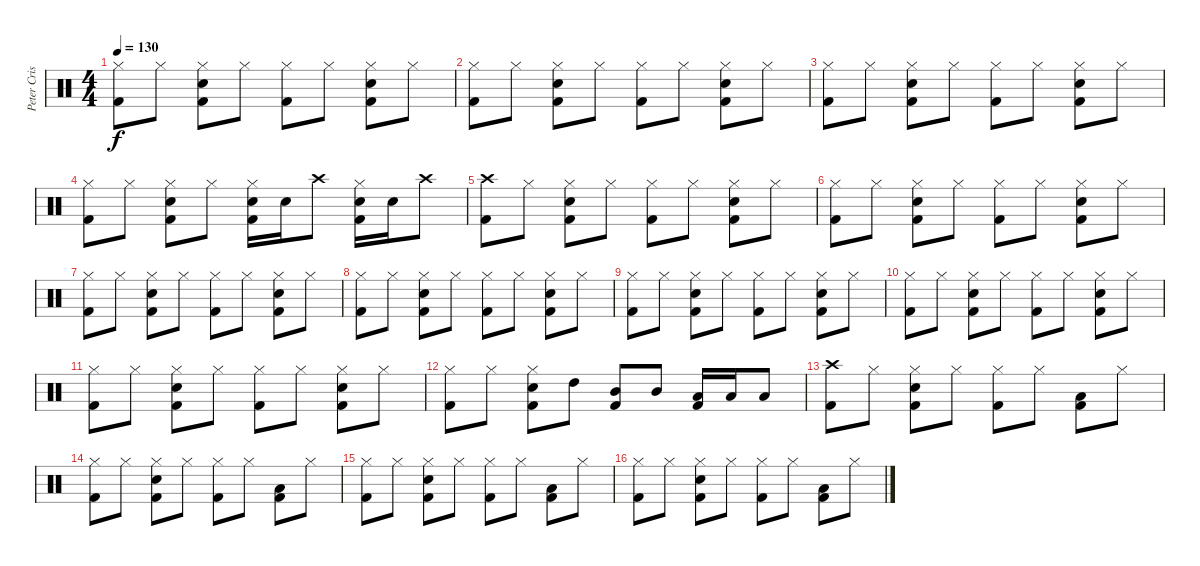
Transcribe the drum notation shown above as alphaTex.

\track ("Peter Criss" "Peter Cris") {instrument percussion}
\staff {score}
\articulation defaults
\ts (4 4)
\tempo 130
\clef neutral
\ks c
("Hi-Hat (closed)" "Kick (hit) 2").8{dy f} "Hi-Hat (closed)".8 ("Hi-Hat (closed)" "Electric Snare (hit)" "Kick (hit) 2").8 "Hi-Hat (closed)".8 ("Hi-Hat (closed)" "Kick (hit) 2").8 "Hi-Hat (closed)".8 ("Hi-Hat (closed)" "Electric Snare (hit)" "Kick (hit) 2").8 "Hi-Hat (closed)".8 |
("Hi-Hat (closed)" "Kick (hit) 2").8 "Hi-Hat (closed)".8 ("Hi-Hat (closed)" "Electric Snare (hit)" "Kick (hit) 2").8 "Hi-Hat (closed)".8 ("Hi-Hat (closed)" "Kick (hit) 2").8 "Hi-Hat (closed)".8 ("Hi-Hat (closed)" "Electric Snare (hit)" "Kick (hit) 2").8 "Hi-Hat (closed)".8 |
("Hi-Hat (closed)" "Kick (hit) 2").8 "Hi-Hat (closed)".8 ("Hi-Hat (closed)" "Electric Snare (hit)" "Kick (hit) 2").8 "Hi-Hat (closed)".8 ("Hi-Hat (closed)" "Kick (hit) 2").8 "Hi-Hat (closed)".8 ("Hi-Hat (closed)" "Electric Snare (hit)" "Kick (hit) 2").8 "Hi-Hat (closed)".8 |
("Hi-Hat (closed)" "Kick (hit) 2").8 "Hi-Hat (closed)".8 ("Hi-Hat (closed)" "Electric Snare (hit)" "Kick (hit) 2").8 "Hi-Hat (closed)".8 ("Hi-Hat (closed)" "Electric Snare (hit)" "Kick (hit) 2").16 "Electric Snare (hit)".16 "Crash high (hit)".8 ("Hi-Hat (closed)" "Electric Snare (hit)" "Kick (hit) 2").16 "Electric Snare (hit)".16 "Crash high (hit)".8 |
("Crash high (hit)" "Kick (hit) 2").8 "Hi-Hat (closed)".8 ("Hi-Hat (closed)" "Electric Snare (hit)" "Kick (hit) 2").8 "Hi-Hat (closed)".8 ("Hi-Hat (closed)" "Kick (hit) 2").8 "Hi-Hat (closed)".8 ("Hi-Hat (closed)" "Electric Snare (hit)" "Kick (hit) 2").8 "Hi-Hat (closed)".8 |
("Hi-Hat (closed)" "Kick (hit) 2").8 "Hi-Hat (closed)".8 ("Hi-Hat (closed)" "Electric Snare (hit)" "Kick (hit) 2").8 "Hi-Hat (closed)".8 ("Hi-Hat (closed)" "Kick (hit) 2").8 "Hi-Hat (closed)".8 ("Hi-Hat (closed)" "Electric Snare (hit)" "Kick (hit) 2").8 "Hi-Hat (closed)".8 |
("Hi-Hat (closed)" "Kick (hit) 2").8 "Hi-Hat (closed)".8 ("Hi-Hat (closed)" "Electric Snare (hit)" "Kick (hit) 2").8 "Hi-Hat (closed)".8 ("Hi-Hat (closed)" "Kick (hit) 2").8 "Hi-Hat (closed)".8 ("Hi-Hat (closed)" "Electric Snare (hit)" "Kick (hit) 2").8 "Hi-Hat (closed)".8 |
("Hi-Hat (closed)" "Kick (hit) 2").8 "Hi-Hat (closed)".8 ("Hi-Hat (closed)" "Electric Snare (hit)" "Kick (hit) 2").8 "Hi-Hat (closed)".8 ("Hi-Hat (closed)" "Kick (hit) 2").8 "Hi-Hat (closed)".8 ("Hi-Hat (closed)" "Electric Snare (hit)" "Kick (hit) 2").8 "Hi-Hat (closed)".8 |
("Hi-Hat (closed)" "Kick (hit) 2").8 "Hi-Hat (closed)".8 ("Hi-Hat (closed)" "Electric Snare (hit)" "Kick (hit) 2").8 "Hi-Hat (closed)".8 ("Hi-Hat (closed)" "Kick (hit) 2").8 "Hi-Hat (closed)".8 ("Hi-Hat (closed)" "Electric Snare (hit)" "Kick (hit) 2").8 "Hi-Hat (closed)".8 |
("Hi-Hat (closed)" "Kick (hit) 2").8 "Hi-Hat (closed)".8 ("Hi-Hat (closed)" "Electric Snare (hit)" "Kick (hit) 2").8 "Hi-Hat (closed)".8 ("Hi-Hat (closed)" "Kick (hit) 2").8 "Hi-Hat (closed)".8 ("Hi-Hat (closed)" "Electric Snare (hit)" "Kick (hit) 2").8 "Hi-Hat (closed)".8 |
("Hi-Hat (closed)" "Kick (hit) 2").8 "Hi-Hat (closed)".8 ("Hi-Hat (closed)" "Electric Snare (hit)" "Kick (hit) 2").8 "Hi-Hat (closed)".8 ("Hi-Hat (closed)" "Kick (hit) 2").8 "Hi-Hat (closed)".8 ("Hi-Hat (closed)" "Electric Snare (hit)" "Kick (hit) 2").8 "Hi-Hat (closed)".8 |
("Hi-Hat (closed)" "Kick (hit) 2").8 "Hi-Hat (closed)".8 ("Hi-Hat (closed)" "Electric Snare (hit)" "Kick (hit) 2").8 "High Tom (hit)".8 ("Mid Tom (hit)" "Kick (hit) 2").8 "Mid Tom (hit)".8 ("Low Tom (hit)" "Kick (hit) 2").16 "Low Tom (hit)".16 "Low Tom (hit)".8 |
("Crash high (hit)" "Kick (hit) 2").8 "Hi-Hat (closed)".8 ("Hi-Hat (closed)" "Electric Snare (hit)" "Kick (hit) 2").8 "Hi-Hat (closed)".8 ("Hi-Hat (closed)" "Kick (hit) 2").8 "Hi-Hat (closed)".8 ("Low Tom (hit)" "Kick (hit) 2").8 "Hi-Hat (closed)".8 |
("Hi-Hat (closed)" "Kick (hit) 2").8 "Hi-Hat (closed)".8 ("Hi-Hat (closed)" "Electric Snare (hit)" "Kick (hit) 2").8 "Hi-Hat (closed)".8 ("Hi-Hat (closed)" "Kick (hit) 2").8 "Hi-Hat (closed)".8 ("Low Tom (hit)" "Kick (hit) 2").8 "Hi-Hat (closed)".8 |
("Hi-Hat (closed)" "Kick (hit) 2").8 "Hi-Hat (closed)".8 ("Hi-Hat (closed)" "Electric Snare (hit)" "Kick (hit) 2").8 "Hi-Hat (closed)".8 ("Hi-Hat (closed)" "Kick (hit) 2").8 "Hi-Hat (closed)".8 ("Low Tom (hit)" "Kick (hit) 2").8 "Hi-Hat (closed)".8 |
("Hi-Hat (closed)" "Kick (hit) 2").8 "Hi-Hat (closed)".8 ("Hi-Hat (closed)" "Electric Snare (hit)" "Kick (hit) 2").8 "Hi-Hat (closed)".8 ("Hi-Hat (closed)" "Kick (hit) 2").8 "Hi-Hat (closed)".8 ("Low Tom (hit)" "Kick (hit) 2").8 "Hi-Hat (closed)".8
